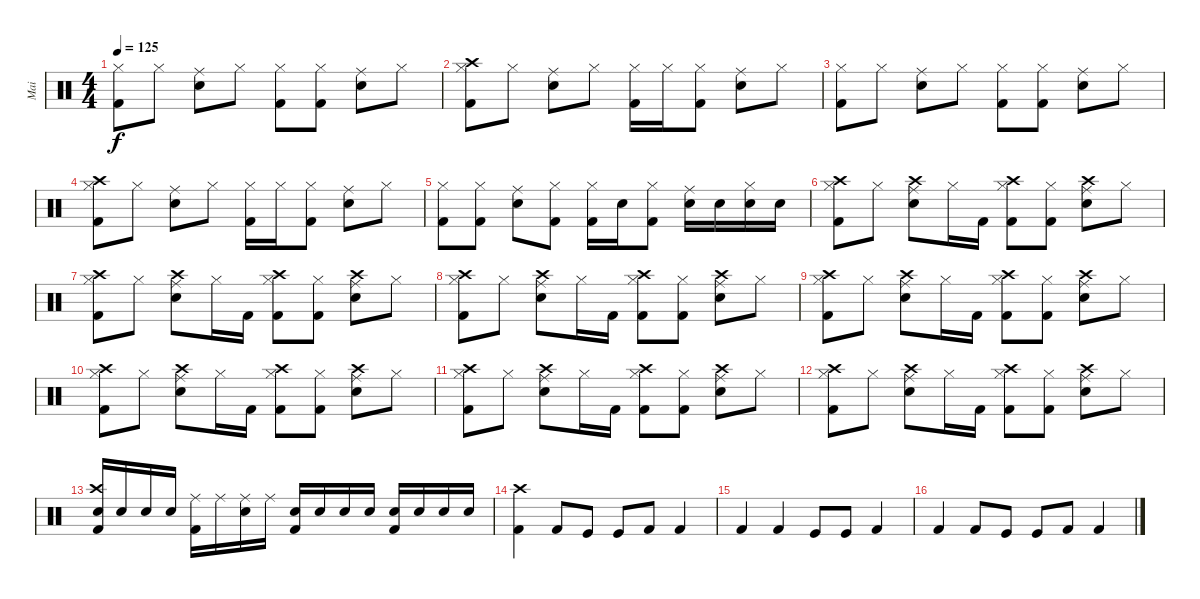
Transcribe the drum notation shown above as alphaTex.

\track ("Mai" "Mai") {instrument percussion}
\staff {score}
\articulation defaults
\ts (4 4)
\tempo 125
\clef neutral
\ks c
("Hi-Hat (closed)" "Kick (hit) 2").8{dy f} "Hi-Hat (closed)".8 ("Ride (middle)" "Snare (hit) 2").8 "Hi-Hat (closed)".8 ("Hi-Hat (closed)" "Kick (hit) 2").8 ("Hi-Hat (closed)" "Kick (hit) 2").8 ("Ride (middle)" "Snare (hit) 2").8 "Hi-Hat (closed)".8 |
("Kick (hit) 2" "Crash high (hit)" "Hi-Hat (closed)").8 "Hi-Hat (closed)".8 ("Ride (middle)" "Snare (hit) 2").8 "Hi-Hat (closed)".8 ("Hi-Hat (closed)" "Kick (hit) 2").16 "Hi-Hat (closed)".16 ("Hi-Hat (closed)" "Kick (hit) 2").8 ("Ride (middle)" "Snare (hit) 2").8 "Hi-Hat (closed)".8 |
("Hi-Hat (closed)" "Kick (hit) 2").8 "Hi-Hat (closed)".8 ("Ride (middle)" "Snare (hit) 2").8 "Hi-Hat (closed)".8 ("Hi-Hat (closed)" "Kick (hit) 2").8 ("Hi-Hat (closed)" "Kick (hit) 2").8 ("Ride (middle)" "Snare (hit) 2").8 "Hi-Hat (closed)".8 |
("Kick (hit) 2" "Crash high (hit)" "Hi-Hat (closed)").8 "Hi-Hat (closed)".8 ("Ride (middle)" "Snare (hit) 2").8 "Hi-Hat (closed)".8 ("Hi-Hat (closed)" "Kick (hit) 2").16 "Hi-Hat (closed)".16 ("Hi-Hat (closed)" "Kick (hit) 2").8 ("Ride (middle)" "Snare (hit) 2").8 "Hi-Hat (closed)".8 |
("Hi-Hat (closed)" "Kick (hit) 2").8 ("Kick (hit) 2" "Hi-Hat (closed)").8 ("Ride (middle)" "Snare (hit) 2").8 ("Kick (hit) 2" "Hi-Hat (closed)").8 ("Hi-Hat (closed)" "Kick (hit) 2").16 "Snare (hit) 2".16 ("Hi-Hat (closed)" "Kick (hit) 2").8 ("Ride (middle)" "Snare (hit) 2").16 "Snare (hit) 2".16 ("Hi-Hat (closed)" "Snare (hit) 2").16 "Snare (hit) 2".16 |
("Kick (hit) 2" "Crash high (hit)" "Hi-Hat (closed)").8 "Hi-Hat (closed)".8 ("Snare (hit) 2" "Crash high (hit)" "Ride (middle)").8 "Hi-Hat (closed)".16 "Kick (hit) 2".16 ("Kick (hit) 2" "Crash high (hit)" "Hi-Hat (closed)").8 ("Hi-Hat (closed)" "Kick (hit) 2").8 ("Snare (hit) 2" "Crash high (hit)" "Ride (middle)").8 "Hi-Hat (closed)".8 |
("Kick (hit) 2" "Crash high (hit)" "Hi-Hat (closed)").8 "Hi-Hat (closed)".8 ("Snare (hit) 2" "Crash high (hit)" "Ride (middle)").8 "Hi-Hat (closed)".16 "Kick (hit) 2".16 ("Kick (hit) 2" "Crash high (hit)" "Hi-Hat (closed)").8 ("Hi-Hat (closed)" "Kick (hit) 2").8 ("Snare (hit) 2" "Crash high (hit)" "Ride (middle)").8 "Hi-Hat (closed)".8 |
("Kick (hit) 2" "Crash high (hit)" "Hi-Hat (closed)").8 "Hi-Hat (closed)".8 ("Snare (hit) 2" "Crash high (hit)" "Ride (middle)").8 "Hi-Hat (closed)".16 "Kick (hit) 2".16 ("Kick (hit) 2" "Crash high (hit)" "Hi-Hat (closed)").8 ("Hi-Hat (closed)" "Kick (hit) 2").8 ("Snare (hit) 2" "Crash high (hit)" "Ride (middle)").8 "Hi-Hat (closed)".8 |
("Kick (hit) 2" "Crash high (hit)" "Hi-Hat (closed)").8 "Hi-Hat (closed)".8 ("Snare (hit) 2" "Crash high (hit)" "Ride (middle)").8 "Hi-Hat (closed)".16 "Kick (hit) 2".16 ("Kick (hit) 2" "Crash high (hit)" "Hi-Hat (closed)").8 ("Hi-Hat (closed)" "Kick (hit) 2").8 ("Snare (hit) 2" "Crash high (hit)" "Ride (middle)").8 "Hi-Hat (closed)".8 |
("Kick (hit) 2" "Crash high (hit)" "Hi-Hat (closed)").8 "Hi-Hat (closed)".8 ("Snare (hit) 2" "Crash high (hit)" "Ride (middle)").8 "Hi-Hat (closed)".16 "Kick (hit) 2".16 ("Kick (hit) 2" "Crash high (hit)" "Hi-Hat (closed)").8 ("Hi-Hat (closed)" "Kick (hit) 2").8 ("Snare (hit) 2" "Crash high (hit)" "Ride (middle)").8 "Hi-Hat (closed)".8 |
("Kick (hit) 2" "Crash high (hit)" "Hi-Hat (closed)").8 "Hi-Hat (closed)".8 ("Snare (hit) 2" "Crash high (hit)" "Ride (middle)").8 "Hi-Hat (closed)".16 "Kick (hit) 2".16 ("Kick (hit) 2" "Crash high (hit)" "Hi-Hat (closed)").8 ("Hi-Hat (closed)" "Kick (hit) 2").8 ("Snare (hit) 2" "Crash high (hit)" "Ride (middle)").8 "Hi-Hat (closed)".8 |
("Kick (hit) 2" "Crash high (hit)" "Hi-Hat (closed)").8 "Hi-Hat (closed)".8 ("Snare (hit) 2" "Crash high (hit)" "Ride (middle)").8 "Hi-Hat (closed)".16 "Kick (hit) 2".16 ("Kick (hit) 2" "Crash high (hit)" "Hi-Hat (closed)").8 ("Hi-Hat (closed)" "Kick (hit) 2").8 ("Snare (hit) 2" "Crash high (hit)" "Ride (middle)").8 "Hi-Hat (closed)".8 |
("Kick (hit) 2" "Crash high (hit)" "Electric Snare (hit)").16 "Electric Snare (hit)".16 "Electric Snare (hit)".16 "Electric Snare (hit)".16 ("Kick (hit) 2" "Ride (middle)").16 "Ride (middle)".16 ("Ride (middle)" "Snare (hit) 2").16 "Ride (middle)".16 ("Electric Snare (hit)" "Kick (hit) 2").16 "Electric Snare (hit)".16 "Electric Snare (hit)".16 "Electric Snare (hit)".16 ("Kick (hit) 2" "Snare (hit) 2").16 "Snare (hit) 2".16 "Snare (hit) 2".16 "Snare (hit) 2".16 |
("Crash high (hit)" "Kick (hit) 2").4 "Kick (hit) 2".8 "Kick (hit)".8 "Kick (hit)".8 "Kick (hit) 2".8 "Kick (hit) 2".4 |
"Kick (hit) 2".4 "Kick (hit) 2".4 "Kick (hit)".8 "Kick (hit)".8 "Kick (hit) 2".4 |
"Kick (hit) 2".4 "Kick (hit) 2".8 "Kick (hit)".8 "Kick (hit)".8 "Kick (hit) 2".8 "Kick (hit) 2".4
